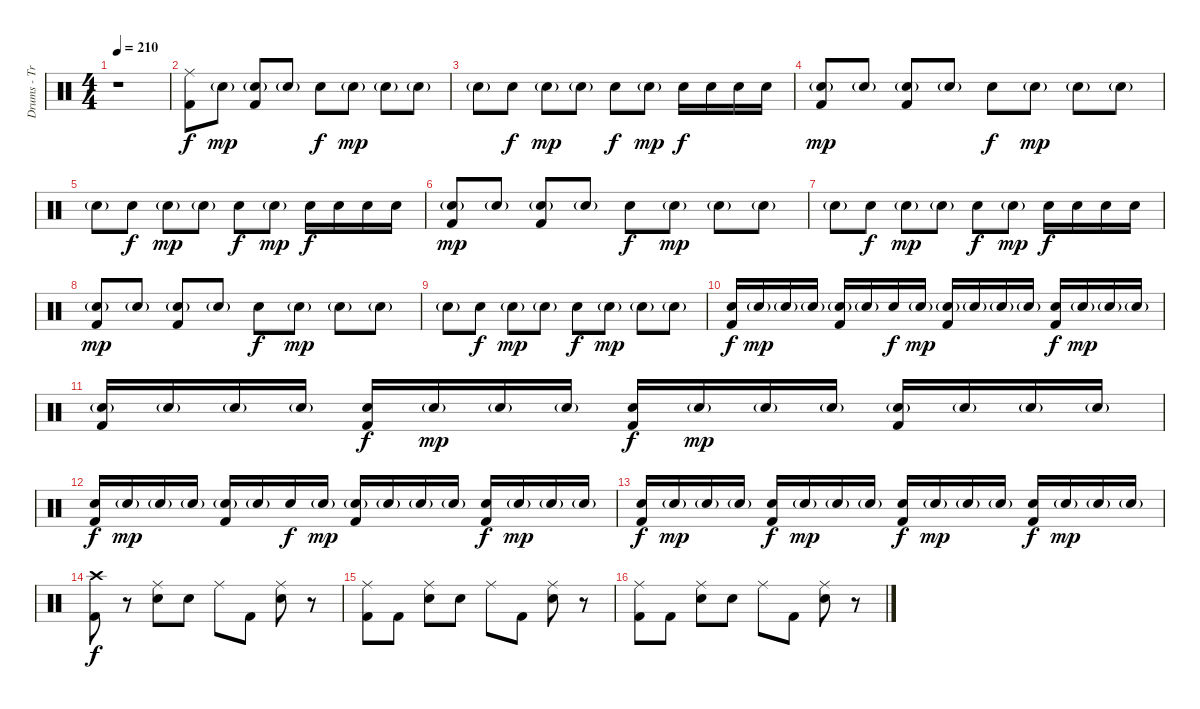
\track ("Drums - Travis Barker" "Drums - Tr") {instrument percussion}
\staff {score}
\articulation defaults
\ts (4 4)
\tempo 210
\clef neutral
\ks c
r.1{dy f} |
("Ride (middle)" "Kick (hit) 2").8 "Electric Snare (hit)"{g}.8{dy mp volume 11} ("Electric Snare (hit)"{g} "Kick (hit) 2").8 "Electric Snare (hit)"{g}.8 "Electric Snare (hit)".8{dy f} "Electric Snare (hit)"{g}.8{dy mp} "Electric Snare (hit)"{g}.8 "Electric Snare (hit)"{g}.8 |
"Snare (hit) 2"{g}.8 "Electric Snare (hit)".8{dy f} "Electric Snare (hit)"{g}.8{dy mp} "Electric Snare (hit)"{g}.8 "Electric Snare (hit)".8{dy f} "Snare (hit) 2"{g}.8{dy mp} "Electric Snare (hit)".16{dy f} "Electric Snare (hit)".16 "Electric Snare (hit)".16 "Electric Snare (hit)".16 |
("Electric Snare (hit)"{g} "Kick (hit) 2").8{dy mp} "Electric Snare (hit)"{g}.8 ("Electric Snare (hit)"{g} "Kick (hit) 2").8 "Electric Snare (hit)"{g}.8 "Electric Snare (hit)".8{dy f} "Electric Snare (hit)"{g}.8{dy mp} "Electric Snare (hit)"{g}.8 "Electric Snare (hit)"{g}.8 |
"Electric Snare (hit)"{g}.8 "Electric Snare (hit)".8{dy f} "Electric Snare (hit)"{g}.8{dy mp} "Electric Snare (hit)"{g}.8 "Electric Snare (hit)".8{dy f} "Electric Snare (hit)"{g}.8{dy mp} "Electric Snare (hit)".16{dy f} "Electric Snare (hit)".16 "Electric Snare (hit)".16 "Electric Snare (hit)".16 |
("Electric Snare (hit)"{g} "Kick (hit) 2").8{dy mp} "Electric Snare (hit)"{g}.8 ("Electric Snare (hit)"{g} "Kick (hit) 2").8 "Electric Snare (hit)"{g}.8 "Electric Snare (hit)".8{dy f} "Electric Snare (hit)"{g}.8{dy mp} "Electric Snare (hit)"{g}.8 "Electric Snare (hit)"{g}.8 |
"Electric Snare (hit)"{g}.8 "Electric Snare (hit)".8{dy f} "Electric Snare (hit)"{g}.8{dy mp} "Electric Snare (hit)"{g}.8 "Electric Snare (hit)".8{dy f} "Electric Snare (hit)"{g}.8{dy mp} "Electric Snare (hit)".16{dy f} "Electric Snare (hit)".16 "Electric Snare (hit)".16 "Electric Snare (hit)".16 |
("Electric Snare (hit)"{g} "Kick (hit) 2").8{dy mp} "Electric Snare (hit)"{g}.8 ("Electric Snare (hit)"{g} "Kick (hit) 2").8 "Electric Snare (hit)"{g}.8 "Electric Snare (hit)".8{dy f} "Electric Snare (hit)"{g}.8{dy mp} "Electric Snare (hit)"{g}.8 "Electric Snare (hit)"{g}.8 |
"Electric Snare (hit)"{g}.8 "Electric Snare (hit)".8{dy f} "Electric Snare (hit)"{g}.8{dy mp} "Electric Snare (hit)"{g}.8 "Electric Snare (hit)".8{dy f} "Electric Snare (hit)"{g}.8{dy mp} "Electric Snare (hit)"{g}.8 "Electric Snare (hit)"{g}.8 |
("Electric Snare (hit)" "Kick (hit) 2").16{dy f volume 6} "Electric Snare (hit)"{g}.16{dy mp volume 8} "Electric Snare (hit)"{g}.16 "Electric Snare (hit)"{g}.16 ("Electric Snare (hit)"{g} "Kick (hit) 2").16 "Electric Snare (hit)"{g}.16 "Electric Snare (hit)".16{dy f} "Electric Snare (hit)"{g}.16{dy mp} ("Electric Snare (hit)"{g} "Kick (hit) 2").16 "Electric Snare (hit)"{g}.16 "Electric Snare (hit)"{g}.16 "Electric Snare (hit)"{g}.16 ("Electric Snare (hit)" "Kick (hit) 2").16{dy f} "Electric Snare (hit)"{g}.16{dy mp} "Electric Snare (hit)"{g}.16 "Electric Snare (hit)"{g}.16 |
("Electric Snare (hit)"{g} "Kick (hit) 2").16 "Electric Snare (hit)"{g}.16 "Electric Snare (hit)"{g}.16 "Electric Snare (hit)"{g}.16 ("Electric Snare (hit)" "Kick (hit) 2").16{dy f} "Electric Snare (hit)"{g}.16{dy mp} "Electric Snare (hit)"{g}.16 "Electric Snare (hit)"{g}.16 ("Electric Snare (hit)" "Kick (hit) 2").16{dy f} "Electric Snare (hit)"{g}.16{dy mp} "Electric Snare (hit)"{g}.16 "Electric Snare (hit)"{g}.16 ("Electric Snare (hit)"{g} "Kick (hit) 2").16 "Electric Snare (hit)"{g}.16 "Electric Snare (hit)"{g}.16 "Electric Snare (hit)"{g}.16 |
("Electric Snare (hit)" "Kick (hit) 2").16{dy f volume 9} "Electric Snare (hit)"{g}.16{dy mp} "Electric Snare (hit)"{g}.16 "Electric Snare (hit)"{g}.16 ("Electric Snare (hit)"{g} "Kick (hit) 2").16 "Electric Snare (hit)"{g}.16 "Electric Snare (hit)".16{dy f} "Electric Snare (hit)"{g}.16{dy mp} ("Electric Snare (hit)"{g} "Kick (hit) 2").16 "Electric Snare (hit)"{g}.16 "Electric Snare (hit)"{g}.16 "Electric Snare (hit)"{g}.16 ("Electric Snare (hit)" "Kick (hit) 2").16{dy f} "Electric Snare (hit)"{g}.16{dy mp} "Electric Snare (hit)"{g}.16 "Electric Snare (hit)"{g}.16 |
("Electric Snare (hit)" "Kick (hit) 2").16{dy f volume 13} "Electric Snare (hit)"{g}.16{dy mp} "Electric Snare (hit)"{g}.16 "Electric Snare (hit)"{g}.16 ("Electric Snare (hit)" "Kick (hit) 2").16{dy f} "Electric Snare (hit)"{g}.16{dy mp} "Electric Snare (hit)"{g}.16 "Electric Snare (hit)"{g}.16 ("Electric Snare (hit)" "Kick (hit) 2").16{dy f} "Electric Snare (hit)"{g}.16{dy mp} "Electric Snare (hit)"{g}.16 "Electric Snare (hit)"{g}.16 ("Electric Snare (hit)" "Kick (hit) 2").16{dy f} "Electric Snare (hit)"{g}.16{dy mp} "Electric Snare (hit)"{g}.16 "Electric Snare (hit)"{g}.16 |
("Crash high (hit)" "Kick (hit) 2").8{dy f} r.8 ("Ride (middle)" "Electric Snare (hit)").8 "Electric Snare (hit)".8 "Ride (middle)".8 "Kick (hit) 2".8 ("Ride (middle)" "Electric Snare (hit)").8 r.8 |
("Ride (middle)" "Kick (hit) 2").8 "Kick (hit) 2".8 ("Ride (middle)" "Electric Snare (hit)").8 "Electric Snare (hit)".8 "Ride (middle)".8 "Kick (hit) 2".8 ("Ride (middle)" "Electric Snare (hit)").8 r.8 |
("Ride (middle)" "Kick (hit) 2").8 "Kick (hit) 2".8 ("Ride (middle)" "Electric Snare (hit)").8 "Electric Snare (hit)".8 "Ride (middle)".8 "Kick (hit) 2".8 ("Ride (middle)" "Electric Snare (hit)").8 r.8
